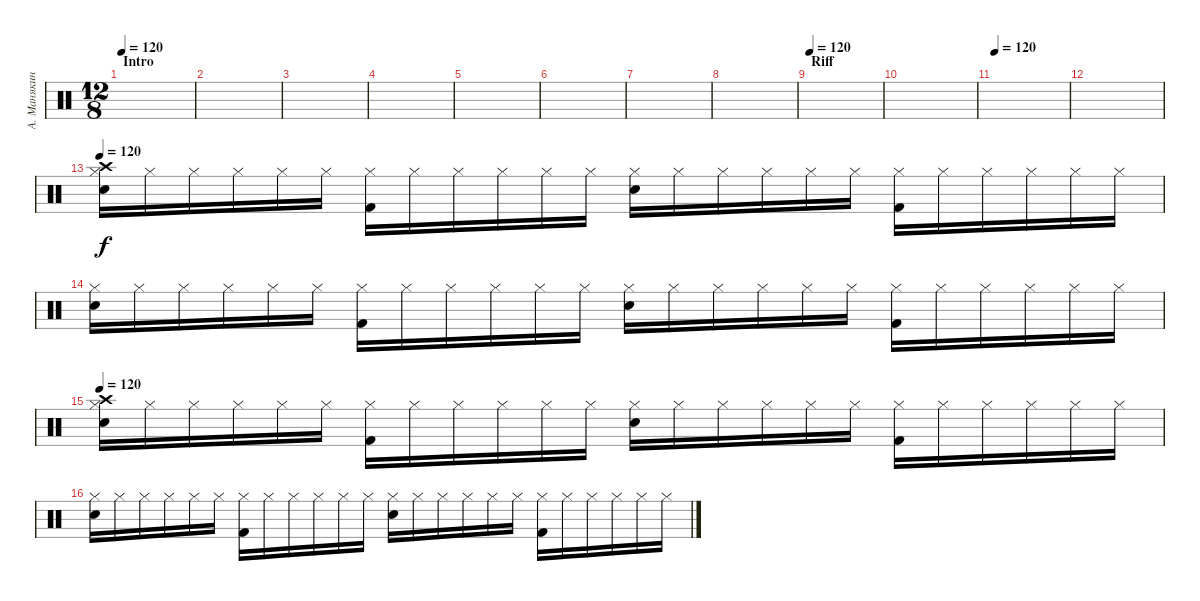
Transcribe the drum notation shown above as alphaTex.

\track ("А. Манякин" "А. Манякин") {instrument percussion}
\staff {score}
\articulation defaults
\ts (12 8)
\section ("" "Intro")
\tempo 120
\tempo 103
\tempo 120
\clef neutral
\ks c
|
|
|
|
|
|
|
|
\section ("" "Riff")
\tempo 120
|
|
\tempo 120
|
|
\tempo 120
("Hi-Hat (closed)" "Snare (hit) 2" "Crash high (hit)").16 "Hi-Hat (closed)".16 "Hi-Hat (closed)".16 "Hi-Hat (closed)".16 "Hi-Hat (closed)".16 "Hi-Hat (closed)".16 ("Hi-Hat (closed)" "Kick (hit) 2").16 "Hi-Hat (closed)".16 "Hi-Hat (closed)".16 "Hi-Hat (closed)".16 "Hi-Hat (closed)".16 "Hi-Hat (closed)".16 ("Hi-Hat (closed)" "Snare (hit) 2").16 "Hi-Hat (closed)".16 "Hi-Hat (closed)".16 "Hi-Hat (closed)".16 "Hi-Hat (closed)".16 "Hi-Hat (closed)".16 ("Hi-Hat (closed)" "Kick (hit) 2").16 "Hi-Hat (closed)".16 "Hi-Hat (closed)".16 "Hi-Hat (closed)".16 "Hi-Hat (closed)".16 "Hi-Hat (closed)".16 |
("Hi-Hat (closed)" "Snare (hit) 2").16 "Hi-Hat (closed)".16 "Hi-Hat (closed)".16 "Hi-Hat (closed)".16 "Hi-Hat (closed)".16 "Hi-Hat (closed)".16 ("Hi-Hat (closed)" "Kick (hit) 2").16 "Hi-Hat (closed)".16 "Hi-Hat (closed)".16 "Hi-Hat (closed)".16 "Hi-Hat (closed)".16 "Hi-Hat (closed)".16 ("Hi-Hat (closed)" "Snare (hit) 2").16 "Hi-Hat (closed)".16 "Hi-Hat (closed)".16 "Hi-Hat (closed)".16 "Hi-Hat (closed)".16 "Hi-Hat (closed)".16 ("Hi-Hat (closed)" "Kick (hit) 2").16 "Hi-Hat (closed)".16 "Hi-Hat (closed)".16 "Hi-Hat (closed)".16 "Hi-Hat (closed)".16 "Hi-Hat (closed)".16 |
\tempo 120
("Hi-Hat (closed)" "Snare (hit) 2" "Crash high (hit)").16 "Hi-Hat (closed)".16 "Hi-Hat (closed)".16 "Hi-Hat (closed)".16 "Hi-Hat (closed)".16 "Hi-Hat (closed)".16 ("Hi-Hat (closed)" "Kick (hit) 2").16 "Hi-Hat (closed)".16 "Hi-Hat (closed)".16 "Hi-Hat (closed)".16 "Hi-Hat (closed)".16 "Hi-Hat (closed)".16 ("Hi-Hat (closed)" "Snare (hit) 2").16 "Hi-Hat (closed)".16 "Hi-Hat (closed)".16 "Hi-Hat (closed)".16 "Hi-Hat (closed)".16 "Hi-Hat (closed)".16 ("Hi-Hat (closed)" "Kick (hit) 2").16 "Hi-Hat (closed)".16 "Hi-Hat (closed)".16 "Hi-Hat (closed)".16 "Hi-Hat (closed)".16 "Hi-Hat (closed)".16 |
("Hi-Hat (closed)" "Snare (hit) 2").16 "Hi-Hat (closed)".16 "Hi-Hat (closed)".16 "Hi-Hat (closed)".16 "Hi-Hat (closed)".16 "Hi-Hat (closed)".16 ("Hi-Hat (closed)" "Kick (hit) 2").16 "Hi-Hat (closed)".16 "Hi-Hat (closed)".16 "Hi-Hat (closed)".16 "Hi-Hat (closed)".16 "Hi-Hat (closed)".16 ("Hi-Hat (closed)" "Snare (hit) 2").16 "Hi-Hat (closed)".16 "Hi-Hat (closed)".16 "Hi-Hat (closed)".16 "Hi-Hat (closed)".16 "Hi-Hat (closed)".16 ("Hi-Hat (closed)" "Kick (hit) 2").16 "Hi-Hat (closed)".16 "Hi-Hat (closed)".16 "Hi-Hat (closed)".16 "Hi-Hat (closed)".16 "Hi-Hat (closed)".16
